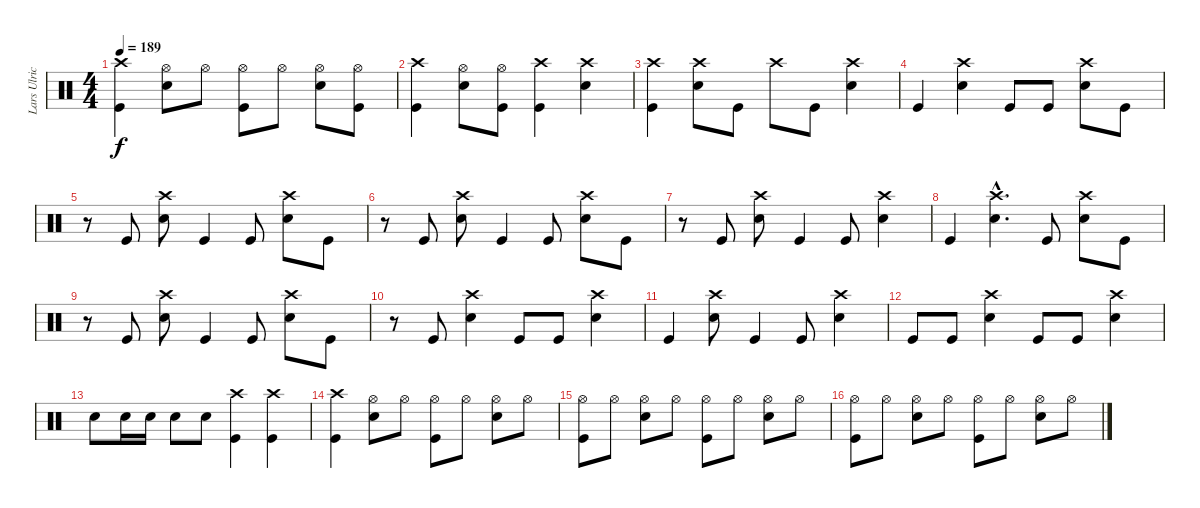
\track ("Lars Ulrich" "Lars Ulric") {instrument percussion}
\staff {score}
\articulation defaults
\ts (4 4)
\tempo 189
\clef neutral
\ks c
("Crash high (hit)" "Kick (hit)").4{dy f} ("Hi-Hat (open)" "Electric Snare (hit)").8 "Hi-Hat (open)".8 ("Hi-Hat (open)" "Kick (hit)").8 "Hi-Hat (open)".8 ("Hi-Hat (open)" "Electric Snare (hit)").8 ("Hi-Hat (open)" "Kick (hit)").8 |
("Crash high (hit)" "Kick (hit)").4 ("Hi-Hat (open)" "Electric Snare (hit)").8 ("Hi-Hat (open)" "Kick (hit)").8 ("Crash high (hit)" "Kick (hit)").4 ("Crash high (hit)" "Electric Snare (hit)").4 |
("Crash high (hit)" "Kick (hit)").4 ("Crash high (hit)" "Electric Snare (hit)").8 "Kick (hit)".8 "Crash high (hit)".8 "Kick (hit)".8 ("Crash high (hit)" "Electric Snare (hit)").4 |
"Kick (hit)".4 ("Crash high (hit)" "Electric Snare (hit)").4 "Kick (hit)".8 "Kick (hit)".8 ("Crash high (hit)" "Electric Snare (hit)").8 "Kick (hit)".8 |
r.8 "Kick (hit)".8 ("Crash high (hit)" "Electric Snare (hit)").8 "Kick (hit)".4 "Kick (hit)".8 ("Crash high (hit)" "Electric Snare (hit)").8 "Kick (hit)".8 |
r.8 "Kick (hit)".8 ("Crash high (hit)" "Electric Snare (hit)").8 "Kick (hit)".4 "Kick (hit)".8 ("Crash high (hit)" "Electric Snare (hit)").8 "Kick (hit)".8 |
r.8 "Kick (hit)".8 ("Crash high (hit)" "Electric Snare (hit)").8 "Kick (hit)".4 "Kick (hit)".8 ("Crash high (hit)" "Electric Snare (hit)").4 |
"Kick (hit)".4 ("Crash high (hit)"{hac} "Electric Snare (hit)"{hac}).4{d} "Kick (hit)".8 ("Crash high (hit)" "Electric Snare (hit)").8 "Kick (hit)".8 |
r.8 "Kick (hit)".8 ("Crash high (hit)" "Electric Snare (hit)").8 "Kick (hit)".4 "Kick (hit)".8 ("Crash high (hit)" "Electric Snare (hit)").8 "Kick (hit)".8 |
r.8 "Kick (hit)".8 ("Crash high (hit)" "Electric Snare (hit)").4 "Kick (hit)".8 "Kick (hit)".8 ("Crash high (hit)" "Electric Snare (hit)").4 |
"Kick (hit)".4 ("Crash high (hit)" "Electric Snare (hit)").8 "Kick (hit)".4 "Kick (hit)".8 ("Crash high (hit)" "Electric Snare (hit)").4 |
"Kick (hit)".8 "Kick (hit)".8 ("Crash high (hit)" "Electric Snare (hit)").4 "Kick (hit)".8 "Kick (hit)".8 ("Crash high (hit)" "Electric Snare (hit)").4 |
"Electric Snare (hit)".8 "Electric Snare (hit)".16 "Electric Snare (hit)".16 "Electric Snare (hit)".8 "Electric Snare (hit)".8 ("Crash high (hit)" "Kick (hit)").4 ("Crash high (hit)" "Kick (hit)").4 |
("Crash high (hit)" "Kick (hit)").4 ("Hi-Hat (open)" "Electric Snare (hit)").8 "Hi-Hat (open)".8 ("Hi-Hat (open)" "Kick (hit)").8 "Hi-Hat (open)".8 ("Hi-Hat (open)" "Electric Snare (hit)").8 "Hi-Hat (open)".8 |
("Hi-Hat (open)" "Kick (hit)").8 "Hi-Hat (open)".8 ("Hi-Hat (open)" "Electric Snare (hit)").8 "Hi-Hat (open)".8 ("Hi-Hat (open)" "Kick (hit)").8 "Hi-Hat (open)".8 ("Hi-Hat (open)" "Electric Snare (hit)").8 "Hi-Hat (open)".8 |
("Hi-Hat (open)" "Kick (hit)").8 "Hi-Hat (open)".8 ("Hi-Hat (open)" "Electric Snare (hit)").8 "Hi-Hat (open)".8 ("Hi-Hat (open)" "Kick (hit)").8 "Hi-Hat (open)".8 ("Hi-Hat (open)" "Electric Snare (hit)").8 "Hi-Hat (open)".8
